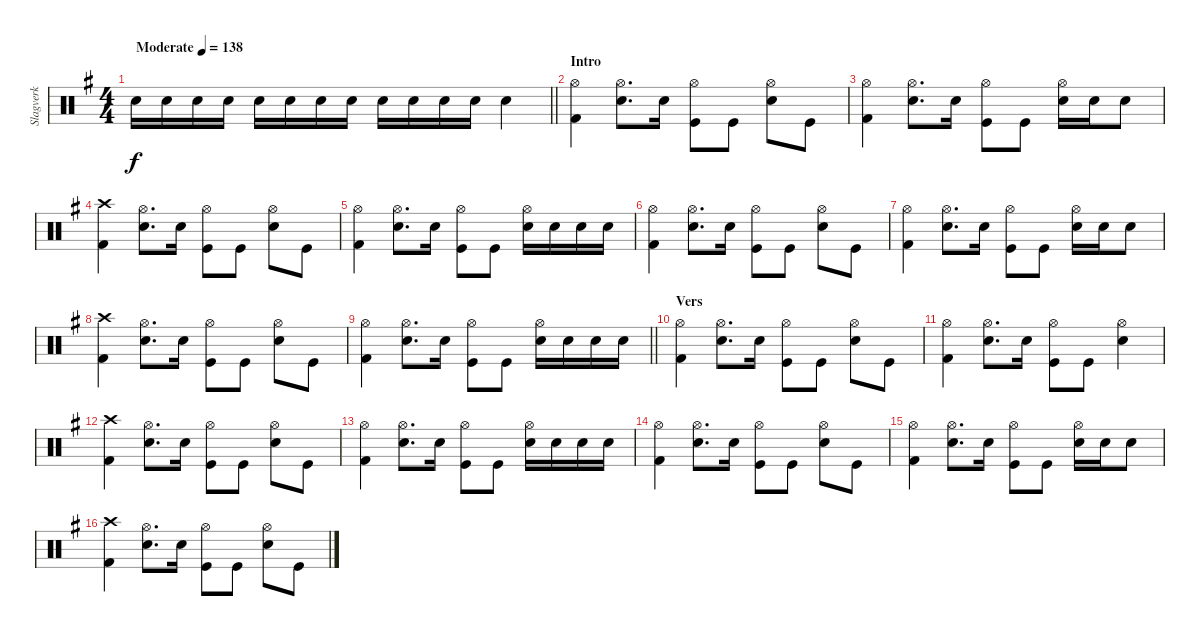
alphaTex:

\track ("Slagverk" "Slagverk") {instrument percussion}
\staff {score}
\articulation defaults
\ts (4 4)
\tempo (138 "Moderate")
\clef neutral
\barLineRight lightlight
\ks g "Snare (hit) 2".16{dy f} "Snare (hit) 2".16 "Snare (hit) 2".16 "Snare (hit) 2".16 "Snare (hit) 2".16 "Snare (hit) 2".16 "Snare (hit) 2".16 "Snare (hit) 2".16 "Snare (hit) 2".16 "Snare (hit) 2".16 "Snare (hit) 2".16 "Snare (hit) 2".16 "Snare (hit) 2".4
|
\section ("" "Intro")
("Hi-Hat (open)" "Kick (hit) 2").4 ("Hi-Hat (open)" "Snare (hit) 2").8{d} "Snare (hit) 2".16 ("Hi-Hat (open)" "Kick (hit)").8 "Kick (hit)".8 ("Hi-Hat (open)" "Snare (hit) 2").8 "Kick (hit)".8 |
("Hi-Hat (open)" "Kick (hit) 2").4 ("Hi-Hat (open)" "Snare (hit) 2").8{d} "Snare (hit) 2".16 ("Hi-Hat (open)" "Kick (hit)").8 "Kick (hit)".8 ("Hi-Hat (open)" "Snare (hit) 2").16 "Snare (hit) 2".16 "Snare (hit) 2".8 |
("Crash high (hit)" "Kick (hit) 2").4 ("Hi-Hat (open)" "Snare (hit) 2").8{d} "Snare (hit) 2".16 ("Hi-Hat (open)" "Kick (hit)").8 "Kick (hit)".8 ("Hi-Hat (open)" "Snare (hit) 2").8 "Kick (hit)".8 |
("Hi-Hat (open)" "Kick (hit) 2").4 ("Hi-Hat (open)" "Snare (hit) 2").8{d} "Snare (hit) 2".16 ("Hi-Hat (open)" "Kick (hit)").8 "Kick (hit)".8 ("Hi-Hat (open)" "Snare (hit) 2").16 "Snare (hit) 2".16 "Snare (hit) 2".16 "Snare (hit) 2".16 |
("Hi-Hat (open)" "Kick (hit) 2").4 ("Hi-Hat (open)" "Snare (hit) 2").8{d} "Snare (hit) 2".16 ("Hi-Hat (open)" "Kick (hit)").8 "Kick (hit)".8 ("Hi-Hat (open)" "Snare (hit) 2").8 "Kick (hit)".8 |
("Hi-Hat (open)" "Kick (hit) 2").4 ("Hi-Hat (open)" "Snare (hit) 2").8{d} "Snare (hit) 2".16 ("Hi-Hat (open)" "Kick (hit)").8 "Kick (hit)".8 ("Hi-Hat (open)" "Snare (hit) 2").16 "Snare (hit) 2".16 "Snare (hit) 2".8 |
("Crash high (hit)" "Kick (hit) 2").4 ("Hi-Hat (open)" "Snare (hit) 2").8{d} "Snare (hit) 2".16 ("Hi-Hat (open)" "Kick (hit)").8 "Kick (hit)".8 ("Hi-Hat (open)" "Snare (hit) 2").8 "Kick (hit)".8 |
\barLineRight lightlight
("Hi-Hat (open)" "Kick (hit) 2").4 ("Hi-Hat (open)" "Snare (hit) 2").8{d} "Snare (hit) 2".16 ("Hi-Hat (open)" "Kick (hit)").8 "Kick (hit)".8 ("Hi-Hat (open)" "Snare (hit) 2").16 "Snare (hit) 2".16 "Snare (hit) 2".16 "Snare (hit) 2".16 |
\section ("" "Vers")
("Hi-Hat (open)" "Kick (hit) 2").4 ("Hi-Hat (open)" "Snare (hit) 2").8{d} "Snare (hit) 2".16 ("Hi-Hat (open)" "Kick (hit)").8 "Kick (hit)".8 ("Hi-Hat (open)" "Snare (hit) 2").8 "Kick (hit)".8 |
("Hi-Hat (open)" "Kick (hit) 2").4 ("Hi-Hat (open)" "Snare (hit) 2").8{d} "Snare (hit) 2".16 ("Hi-Hat (open)" "Kick (hit)").8 "Kick (hit)".8 ("Hi-Hat (open)" "Snare (hit) 2").4 |
("Crash high (hit)" "Kick (hit) 2").4 ("Hi-Hat (open)" "Snare (hit) 2").8{d} "Snare (hit) 2".16 ("Hi-Hat (open)" "Kick (hit)").8 "Kick (hit)".8 ("Hi-Hat (open)" "Snare (hit) 2").8 "Kick (hit)".8 |
("Hi-Hat (open)" "Kick (hit) 2").4 ("Hi-Hat (open)" "Snare (hit) 2").8{d} "Snare (hit) 2".16 ("Hi-Hat (open)" "Kick (hit)").8 "Kick (hit)".8 ("Hi-Hat (open)" "Snare (hit) 2").16 "Snare (hit) 2".16 "Snare (hit) 2".16 "Snare (hit) 2".16 |
("Hi-Hat (open)" "Kick (hit) 2").4 ("Hi-Hat (open)" "Snare (hit) 2").8{d} "Snare (hit) 2".16 ("Hi-Hat (open)" "Kick (hit)").8 "Kick (hit)".8 ("Hi-Hat (open)" "Snare (hit) 2").8 "Kick (hit)".8 |
("Hi-Hat (open)" "Kick (hit) 2").4 ("Hi-Hat (open)" "Snare (hit) 2").8{d} "Snare (hit) 2".16 ("Hi-Hat (open)" "Kick (hit)").8 "Kick (hit)".8 ("Hi-Hat (open)" "Snare (hit) 2").16 "Snare (hit) 2".16 "Snare (hit) 2".8 |
("Crash high (hit)" "Kick (hit) 2").4 ("Hi-Hat (open)" "Snare (hit) 2").8{d} "Snare (hit) 2".16 ("Hi-Hat (open)" "Kick (hit)").8 "Kick (hit)".8 ("Hi-Hat (open)" "Snare (hit) 2").8 "Kick (hit)".8
